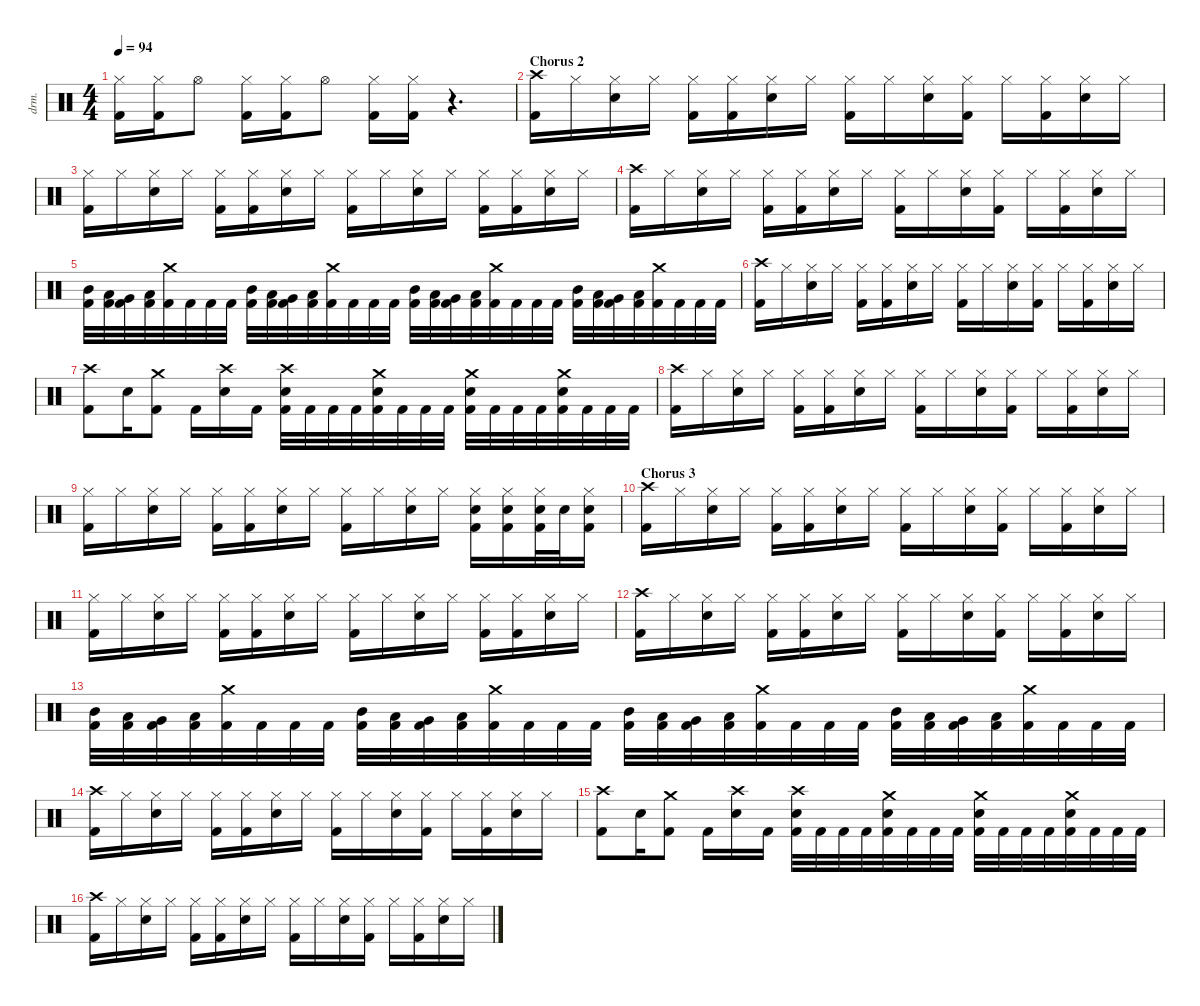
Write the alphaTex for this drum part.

\defaultSystemsLayout 4
\hideDynamics
\bracketExtendMode nobrackets
\track ("Drums" "drm.") {instrument percussion}
\staff {score}
\articulation defaults
\ts (4 4)
\tempo 94
\clef neutral
\ks c
("Hi-Hat (closed)" "Kick (hit) 2").16{dy f} ("Hi-Hat (closed)" "Kick (hit) 2").16 "Hi-Hat (open)".8 ("Hi-Hat (closed)" "Kick (hit) 2").16 ("Hi-Hat (closed)" "Kick (hit) 2").16 "Hi-Hat (open)".8 ("Hi-Hat (closed)" "Kick (hit) 2").16 ("Hi-Hat (closed)" "Kick (hit) 2").16 r.4{d} |
\section ("" "Chorus 2")
("Crash high (hit)" "Kick (hit) 2").16 "Hi-Hat (closed)".16 ("Hi-Hat (closed)" "Snare (hit) 2").16 "Hi-Hat (closed)".16 ("Hi-Hat (closed)" "Kick (hit) 2").16 ("Hi-Hat (closed)" "Kick (hit) 2").16 ("Hi-Hat (closed)" "Snare (hit) 2").16 "Hi-Hat (closed)".16 ("Hi-Hat (closed)" "Kick (hit) 2").16 "Hi-Hat (closed)".16 ("Hi-Hat (closed)" "Snare (hit) 2").16 ("Hi-Hat (closed)" "Kick (hit) 2").16 "Hi-Hat (closed)".16 ("Hi-Hat (closed)" "Kick (hit) 2").16 ("Hi-Hat (closed)" "Snare (hit) 2").16 "Hi-Hat (closed)".16 |
("Hi-Hat (closed)" "Kick (hit) 2").16 "Hi-Hat (closed)".16 ("Hi-Hat (closed)" "Snare (hit) 2").16 "Hi-Hat (closed)".16 ("Hi-Hat (closed)" "Kick (hit) 2").16 ("Hi-Hat (closed)" "Kick (hit) 2").16 ("Hi-Hat (closed)" "Snare (hit) 2").16 "Hi-Hat (closed)".16 ("Hi-Hat (closed)" "Kick (hit) 2").16 "Hi-Hat (closed)".16 ("Hi-Hat (closed)" "Snare (hit) 2").16 "Hi-Hat (closed)".16 ("Hi-Hat (closed)" "Kick (hit) 2").16 ("Hi-Hat (closed)" "Kick (hit) 2").16 ("Hi-Hat (closed)" "Snare (hit) 2").16 "Hi-Hat (closed)".16 |
("Crash high (hit)" "Kick (hit) 2").16 "Hi-Hat (closed)".16 ("Hi-Hat (closed)" "Snare (hit) 2").16 "Hi-Hat (closed)".16 ("Hi-Hat (closed)" "Kick (hit) 2").16 ("Hi-Hat (closed)" "Kick (hit) 2").16 ("Hi-Hat (closed)" "Snare (hit) 2").16 "Hi-Hat (closed)".16 ("Hi-Hat (closed)" "Kick (hit) 2").16 "Hi-Hat (closed)".16 ("Hi-Hat (closed)" "Snare (hit) 2").16 ("Hi-Hat (closed)" "Kick (hit) 2").16 "Hi-Hat (closed)".16 ("Hi-Hat (closed)" "Kick (hit) 2").16 ("Hi-Hat (closed)" "Snare (hit) 2").16 "Hi-Hat (closed)".16 |
("Mid Tom (hit)" "Kick (hit) 2").32 ("Low Tom (hit)" "Kick (hit) 2").32 ("Very Low Tom (hit)" "Kick (hit) 2").32 ("Low Floor Tom (hit)" "Kick (hit) 2").32 ("Crash medium (hit)" "Kick (hit) 2").32 "Kick (hit) 2".32 "Kick (hit) 2".32 "Kick (hit) 2".32 ("Mid Tom (hit)" "Kick (hit) 2").32 ("Low Tom (hit)" "Kick (hit) 2").32 ("Very Low Tom (hit)" "Kick (hit) 2").32 ("Low Floor Tom (hit)" "Kick (hit) 2").32 ("Crash medium (hit)" "Kick (hit) 2").32 "Kick (hit) 2".32 "Kick (hit) 2".32 "Kick (hit) 2".32 ("Mid Tom (hit)" "Kick (hit) 2").32 ("Low Tom (hit)" "Kick (hit) 2").32 ("Very Low Tom (hit)" "Kick (hit) 2").32 ("Low Floor Tom (hit)" "Kick (hit) 2").32 ("Crash medium (hit)" "Kick (hit) 2").32 "Kick (hit) 2".32 "Kick (hit) 2".32 "Kick (hit) 2".32 ("Mid Tom (hit)" "Kick (hit) 2").32 ("Low Tom (hit)" "Kick (hit) 2").32 ("Very Low Tom (hit)" "Kick (hit) 2").32 ("Low Floor Tom (hit)" "Kick (hit) 2").32 ("Crash medium (hit)" "Kick (hit) 2").32 "Kick (hit) 2".32 "Kick (hit) 2".32 "Kick (hit) 2".32 |
("Crash high (hit)" "Kick (hit) 2").16 "Hi-Hat (closed)".16 ("Hi-Hat (closed)" "Snare (hit) 2").16 "Hi-Hat (closed)".16 ("Hi-Hat (closed)" "Kick (hit) 2").16 ("Hi-Hat (closed)" "Kick (hit) 2").16 ("Hi-Hat (closed)" "Snare (hit) 2").16 "Hi-Hat (closed)".16 ("Hi-Hat (closed)" "Kick (hit) 2").16 "Hi-Hat (closed)".16 ("Hi-Hat (closed)" "Snare (hit) 2").16 ("Hi-Hat (closed)" "Kick (hit) 2").16 "Hi-Hat (closed)".16 ("Hi-Hat (closed)" "Kick (hit) 2").16 ("Hi-Hat (closed)" "Snare (hit) 2").16 "Hi-Hat (closed)".16 |
("Crash high (hit)" "Kick (hit) 2").8 "Snare (hit) 2".16 ("Crash medium (hit)" "Kick (hit) 2").8 "Kick (hit) 2".16 ("Crash high (hit)" "Snare (hit) 2").16 "Kick (hit) 2".16 ("Crash high (hit)" "Snare (hit) 2" "Kick (hit) 2").32 "Kick (hit) 2".32 "Kick (hit) 2".32 "Kick (hit) 2".32 ("Crash medium (hit)" "Snare (hit) 2" "Kick (hit) 2").32 "Kick (hit) 2".32 "Kick (hit) 2".32 "Kick (hit) 2".32 ("Crash medium (hit)" "Snare (hit) 2" "Kick (hit) 2").32 "Kick (hit) 2".32 "Kick (hit) 2".32 "Kick (hit) 2".32 ("Crash medium (hit)" "Snare (hit) 2" "Kick (hit) 2").32 "Kick (hit) 2".32 "Kick (hit) 2".32 "Kick (hit) 2".32 |
("Crash high (hit)" "Kick (hit) 2").16 "Hi-Hat (closed)".16 ("Hi-Hat (closed)" "Snare (hit) 2").16 "Hi-Hat (closed)".16 ("Hi-Hat (closed)" "Kick (hit) 2").16 ("Hi-Hat (closed)" "Kick (hit) 2").16 ("Hi-Hat (closed)" "Snare (hit) 2").16 "Hi-Hat (closed)".16 ("Hi-Hat (closed)" "Kick (hit) 2").16 "Hi-Hat (closed)".16 ("Hi-Hat (closed)" "Snare (hit) 2").16 ("Hi-Hat (closed)" "Kick (hit) 2").16 "Hi-Hat (closed)".16 ("Hi-Hat (closed)" "Kick (hit) 2").16 ("Hi-Hat (closed)" "Snare (hit) 2").16 "Hi-Hat (closed)".16 |
("Hi-Hat (closed)" "Kick (hit) 2").16 "Hi-Hat (closed)".16 ("Hi-Hat (closed)" "Snare (hit) 2").16 "Hi-Hat (closed)".16 ("Hi-Hat (closed)" "Kick (hit) 2").16 ("Hi-Hat (closed)" "Kick (hit) 2").16 ("Hi-Hat (closed)" "Snare (hit) 2").16 "Hi-Hat (closed)".16 ("Hi-Hat (closed)" "Kick (hit) 2").16 "Hi-Hat (closed)".16 ("Hi-Hat (closed)" "Snare (hit) 2").16 "Hi-Hat (closed)".16 ("Hi-Hat (closed)" "Snare (hit) 2" "Kick (hit) 2").16 ("Hi-Hat (closed)" "Snare (hit) 2" "Kick (hit) 2").16 ("Hi-Hat (closed)" "Snare (hit) 2" "Kick (hit) 2").32 "Snare (hit) 2".32 ("Hi-Hat (closed)" "Snare (hit) 2" "Kick (hit) 2").16 |
\section ("" "Chorus 3")
("Crash high (hit)" "Kick (hit) 2").16 "Hi-Hat (closed)".16 ("Hi-Hat (closed)" "Snare (hit) 2").16 "Hi-Hat (closed)".16 ("Hi-Hat (closed)" "Kick (hit) 2").16 ("Hi-Hat (closed)" "Kick (hit) 2").16 ("Hi-Hat (closed)" "Snare (hit) 2").16 "Hi-Hat (closed)".16 ("Hi-Hat (closed)" "Kick (hit) 2").16 "Hi-Hat (closed)".16 ("Hi-Hat (closed)" "Snare (hit) 2").16 ("Hi-Hat (closed)" "Kick (hit) 2").16 "Hi-Hat (closed)".16 ("Hi-Hat (closed)" "Kick (hit) 2").16 ("Hi-Hat (closed)" "Snare (hit) 2").16 "Hi-Hat (closed)".16 |
("Hi-Hat (closed)" "Kick (hit) 2").16 "Hi-Hat (closed)".16 ("Hi-Hat (closed)" "Snare (hit) 2").16 "Hi-Hat (closed)".16 ("Hi-Hat (closed)" "Kick (hit) 2").16 ("Hi-Hat (closed)" "Kick (hit) 2").16 ("Hi-Hat (closed)" "Snare (hit) 2").16 "Hi-Hat (closed)".16 ("Hi-Hat (closed)" "Kick (hit) 2").16 "Hi-Hat (closed)".16 ("Hi-Hat (closed)" "Snare (hit) 2").16 "Hi-Hat (closed)".16 ("Hi-Hat (closed)" "Kick (hit) 2").16 ("Hi-Hat (closed)" "Kick (hit) 2").16 ("Hi-Hat (closed)" "Snare (hit) 2").16 "Hi-Hat (closed)".16 |
("Crash high (hit)" "Kick (hit) 2").16 "Hi-Hat (closed)".16 ("Hi-Hat (closed)" "Snare (hit) 2").16 "Hi-Hat (closed)".16 ("Hi-Hat (closed)" "Kick (hit) 2").16 ("Hi-Hat (closed)" "Kick (hit) 2").16 ("Hi-Hat (closed)" "Snare (hit) 2").16 "Hi-Hat (closed)".16 ("Hi-Hat (closed)" "Kick (hit) 2").16 "Hi-Hat (closed)".16 ("Hi-Hat (closed)" "Snare (hit) 2").16 ("Hi-Hat (closed)" "Kick (hit) 2").16 "Hi-Hat (closed)".16 ("Hi-Hat (closed)" "Kick (hit) 2").16 ("Hi-Hat (closed)" "Snare (hit) 2").16 "Hi-Hat (closed)".16 |
("Mid Tom (hit)" "Kick (hit) 2").32 ("Low Tom (hit)" "Kick (hit) 2").32 ("Very Low Tom (hit)" "Kick (hit) 2").32 ("Low Floor Tom (hit)" "Kick (hit) 2").32 ("Crash medium (hit)" "Kick (hit) 2").32 "Kick (hit) 2".32 "Kick (hit) 2".32 "Kick (hit) 2".32 ("Mid Tom (hit)" "Kick (hit) 2").32 ("Low Tom (hit)" "Kick (hit) 2").32 ("Very Low Tom (hit)" "Kick (hit) 2").32 ("Low Floor Tom (hit)" "Kick (hit) 2").32 ("Crash medium (hit)" "Kick (hit) 2").32 "Kick (hit) 2".32 "Kick (hit) 2".32 "Kick (hit) 2".32 ("Mid Tom (hit)" "Kick (hit) 2").32 ("Low Tom (hit)" "Kick (hit) 2").32 ("Very Low Tom (hit)" "Kick (hit) 2").32 ("Low Floor Tom (hit)" "Kick (hit) 2").32 ("Crash medium (hit)" "Kick (hit) 2").32 "Kick (hit) 2".32 "Kick (hit) 2".32 "Kick (hit) 2".32 ("Mid Tom (hit)" "Kick (hit) 2").32 ("Low Tom (hit)" "Kick (hit) 2").32 ("Very Low Tom (hit)" "Kick (hit) 2").32 ("Low Floor Tom (hit)" "Kick (hit) 2").32 ("Crash medium (hit)" "Kick (hit) 2").32 "Kick (hit) 2".32 "Kick (hit) 2".32 "Kick (hit) 2".32 |
("Crash high (hit)" "Kick (hit) 2").16 "Hi-Hat (closed)".16 ("Hi-Hat (closed)" "Snare (hit) 2").16 "Hi-Hat (closed)".16 ("Hi-Hat (closed)" "Kick (hit) 2").16 ("Hi-Hat (closed)" "Kick (hit) 2").16 ("Hi-Hat (closed)" "Snare (hit) 2").16 "Hi-Hat (closed)".16 ("Hi-Hat (closed)" "Kick (hit) 2").16 "Hi-Hat (closed)".16 ("Hi-Hat (closed)" "Snare (hit) 2").16 ("Hi-Hat (closed)" "Kick (hit) 2").16 "Hi-Hat (closed)".16 ("Hi-Hat (closed)" "Kick (hit) 2").16 ("Hi-Hat (closed)" "Snare (hit) 2").16 "Hi-Hat (closed)".16 |
("Crash high (hit)" "Kick (hit) 2").8 "Snare (hit) 2".16 ("Crash medium (hit)" "Kick (hit) 2").8 "Kick (hit) 2".16 ("Crash high (hit)" "Snare (hit) 2").16 "Kick (hit) 2".16 ("Crash high (hit)" "Snare (hit) 2" "Kick (hit) 2").32 "Kick (hit) 2".32 "Kick (hit) 2".32 "Kick (hit) 2".32 ("Crash medium (hit)" "Snare (hit) 2" "Kick (hit) 2").32 "Kick (hit) 2".32 "Kick (hit) 2".32 "Kick (hit) 2".32 ("Crash medium (hit)" "Snare (hit) 2" "Kick (hit) 2").32 "Kick (hit) 2".32 "Kick (hit) 2".32 "Kick (hit) 2".32 ("Crash medium (hit)" "Snare (hit) 2" "Kick (hit) 2").32 "Kick (hit) 2".32 "Kick (hit) 2".32 "Kick (hit) 2".32 |
("Crash high (hit)" "Kick (hit) 2").16 "Hi-Hat (closed)".16 ("Hi-Hat (closed)" "Snare (hit) 2").16 "Hi-Hat (closed)".16 ("Hi-Hat (closed)" "Kick (hit) 2").16 ("Hi-Hat (closed)" "Kick (hit) 2").16 ("Hi-Hat (closed)" "Snare (hit) 2").16 "Hi-Hat (closed)".16 ("Hi-Hat (closed)" "Kick (hit) 2").16 "Hi-Hat (closed)".16 ("Hi-Hat (closed)" "Snare (hit) 2").16 ("Hi-Hat (closed)" "Kick (hit) 2").16 "Hi-Hat (closed)".16 ("Hi-Hat (closed)" "Kick (hit) 2").16 ("Hi-Hat (closed)" "Snare (hit) 2").16 "Hi-Hat (closed)".16
